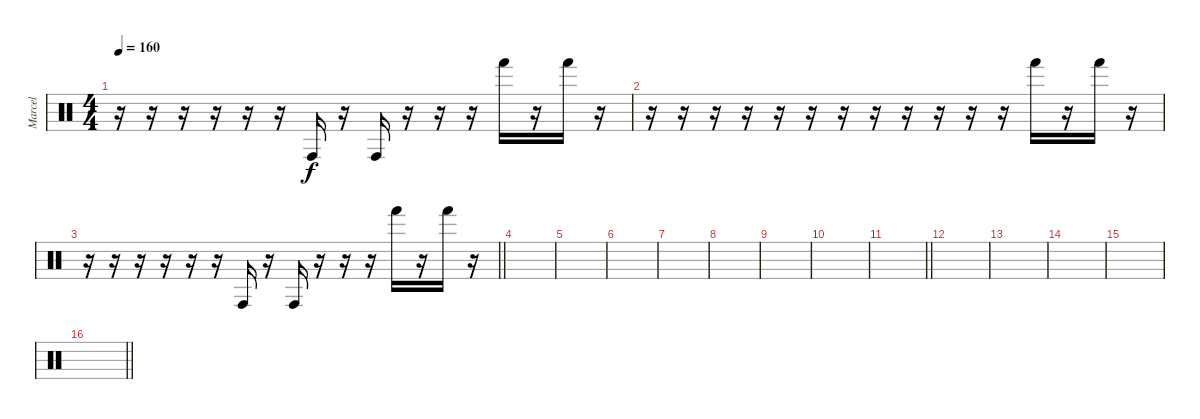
\track ("Marcel" "Marcel") {instrument percussion}
\staff {score}
\articulation defaults
\ts (4 4)
\tempo 160
\clef neutral
\ks c
r.16{dy f} r.16 r.16 r.16 r.16 r.16 "Conga high (hit)".16 r.16 "Conga high (hit)".16 r.16 r.16 r.16 "Hand (hit)".16 r.16 "Hand (hit)".16 r.16 |
r.16 r.16 r.16 r.16 r.16 r.16 r.16 r.16 r.16 r.16 r.16 r.16 "Hand (hit)".16 r.16 "Hand (hit)".16 r.16 |
\barLineRight lightlight
r.16 r.16 r.16 r.16 r.16 r.16 "Conga high (hit)".16 r.16 "Conga high (hit)".16 r.16 r.16 r.16 "Hand (hit)".16 r.16 "Hand (hit)".16 r.16 |
|
|
|
|
|
|
|
\barLineRight lightlight
|
|
|
|
|
\barLineRight lightlight
